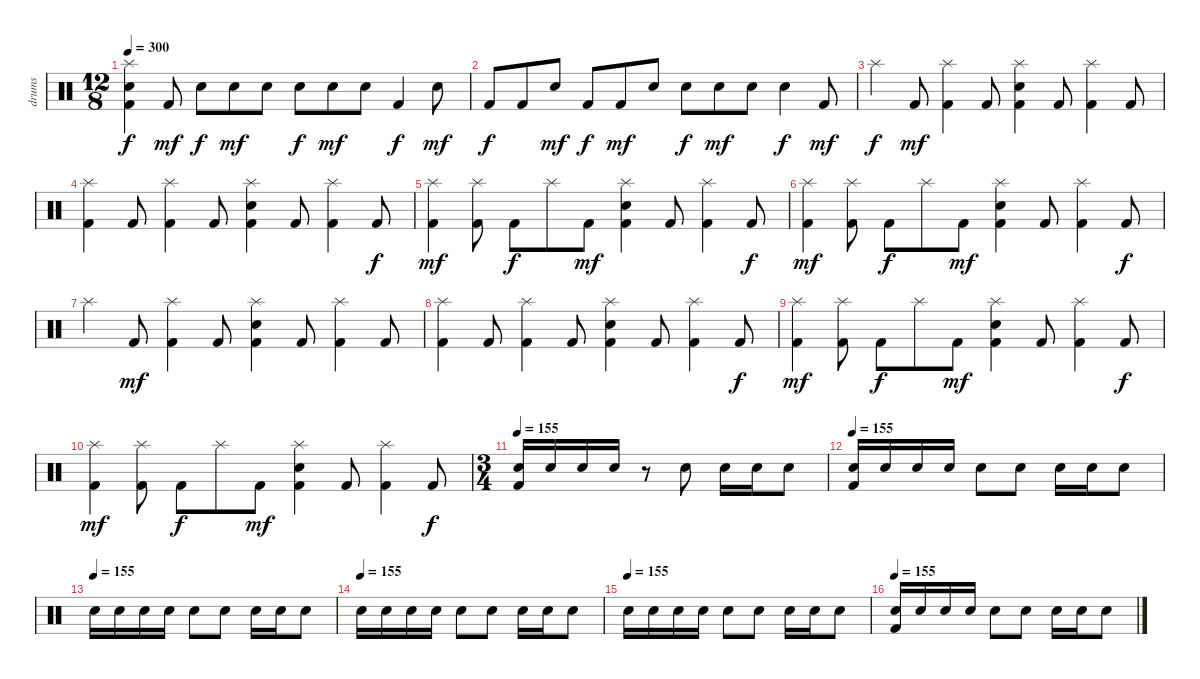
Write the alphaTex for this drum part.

\track ("drums" "drums") {instrument percussion}
\staff {score}
\articulation defaults
\ts (12 8)
\tempo 300
\clef neutral
\ks c
("Splash (hit)" "Snare (hit) 2" "Kick (hit) 2").4{dy f} "Kick (hit) 2".8{dy mf} "Snare (hit) 2".8{dy f} "Snare (hit) 2".8{dy mf} "Snare (hit) 2".8 "Snare (hit) 2".8{dy f} "Snare (hit) 2".8{dy mf} "Snare (hit) 2".8 "Kick (hit) 2".4{dy f} "Snare (hit) 2".8{dy mf} |
"Kick (hit) 2".8{dy f} "Kick (hit) 2".8 "Snare (hit) 2".8{dy mf} "Kick (hit) 2".8{dy f} "Kick (hit) 2".8{dy mf} "Snare (hit) 2".8 "Snare (hit) 2".8{dy f} "Snare (hit) 2".8{dy mf} "Snare (hit) 2".8 "Snare (hit) 2".4{dy f} "Kick (hit) 2".8{dy mf} |
"Splash (hit)".4{dy f} "Kick (hit) 2".8{dy mf} ("Splash (hit)" "Kick (hit) 2").4 "Kick (hit) 2".8 ("Splash (hit)" "Snare (hit) 2" "Kick (hit) 2").4 "Kick (hit) 2".8 ("Splash (hit)" "Kick (hit) 2").4 "Kick (hit) 2".8 |
("Splash (hit)" "Kick (hit) 2").4 "Kick (hit) 2".8 ("Splash (hit)" "Kick (hit) 2").4 "Kick (hit) 2".8 ("Splash (hit)" "Snare (hit) 2" "Kick (hit) 2").4 "Kick (hit) 2".8 ("Splash (hit)" "Kick (hit) 2").4 "Kick (hit) 2".8{dy f} |
("Splash (hit)" "Kick (hit) 2").4{dy mf} ("Splash (hit)" "Kick (hit) 2").8 "Kick (hit) 2".8{dy f} "Splash (hit)".8 "Kick (hit) 2".8{dy mf} ("Splash (hit)" "Snare (hit) 2" "Kick (hit) 2").4 "Kick (hit) 2".8 ("Splash (hit)" "Kick (hit) 2").4 "Kick (hit) 2".8{dy f} |
("Splash (hit)" "Kick (hit) 2").4{dy mf} ("Splash (hit)" "Kick (hit) 2").8 "Kick (hit) 2".8{dy f} "Splash (hit)".8 "Kick (hit) 2".8{dy mf} ("Splash (hit)" "Snare (hit) 2" "Kick (hit) 2").4 "Kick (hit) 2".8 ("Splash (hit)" "Kick (hit) 2").4 "Kick (hit) 2".8{dy f} |
"Splash (hit)".4 "Kick (hit) 2".8{dy mf} ("Splash (hit)" "Kick (hit) 2").4 "Kick (hit) 2".8 ("Splash (hit)" "Snare (hit) 2" "Kick (hit) 2").4 "Kick (hit) 2".8 ("Splash (hit)" "Kick (hit) 2").4 "Kick (hit) 2".8 |
("Splash (hit)" "Kick (hit) 2").4 "Kick (hit) 2".8 ("Splash (hit)" "Kick (hit) 2").4 "Kick (hit) 2".8 ("Splash (hit)" "Snare (hit) 2" "Kick (hit) 2").4 "Kick (hit) 2".8 ("Splash (hit)" "Kick (hit) 2").4 "Kick (hit) 2".8{dy f} |
("Splash (hit)" "Kick (hit) 2").4{dy mf} ("Splash (hit)" "Kick (hit) 2").8 "Kick (hit) 2".8{dy f} "Splash (hit)".8 "Kick (hit) 2".8{dy mf} ("Splash (hit)" "Snare (hit) 2" "Kick (hit) 2").4 "Kick (hit) 2".8 ("Splash (hit)" "Kick (hit) 2").4 "Kick (hit) 2".8{dy f} |
("Splash (hit)" "Kick (hit) 2").4{dy mf} ("Splash (hit)" "Kick (hit) 2").8 "Kick (hit) 2".8{dy f} "Splash (hit)".8 "Kick (hit) 2".8{dy mf} ("Splash (hit)" "Snare (hit) 2" "Kick (hit) 2").4 "Kick (hit) 2".8 ("Splash (hit)" "Kick (hit) 2").4 "Kick (hit) 2".8{dy f} |
\ts (3 4)
\tempo 155
("Snare (hit) 2" "Kick (hit) 2").16 "Snare (hit) 2".16 "Snare (hit) 2".16 "Snare (hit) 2".16 r.8 "Snare (hit) 2".8 "Snare (hit) 2".16 "Snare (hit) 2".16 "Snare (hit) 2".8 |
\tempo 155
("Snare (hit) 2" "Kick (hit) 2").16 "Snare (hit) 2".16 "Snare (hit) 2".16 "Snare (hit) 2".16 "Snare (hit) 2".8 "Snare (hit) 2".8 "Snare (hit) 2".16 "Snare (hit) 2".16 "Snare (hit) 2".8 |
\tempo (155)
"Snare (hit) 2".16 "Snare (hit) 2".16 "Snare (hit) 2".16 "Snare (hit) 2".16 "Snare (hit) 2".8 "Snare (hit) 2".8 "Snare (hit) 2".16 "Snare (hit) 2".16 "Snare (hit) 2".8 |
\tempo (155)
"Snare (hit) 2".16 "Snare (hit) 2".16 "Snare (hit) 2".16 "Snare (hit) 2".16 "Snare (hit) 2".8 "Snare (hit) 2".8 "Snare (hit) 2".16 "Snare (hit) 2".16 "Snare (hit) 2".8 |
\tempo (155)
"Snare (hit) 2".16 "Snare (hit) 2".16 "Snare (hit) 2".16 "Snare (hit) 2".16 "Snare (hit) 2".8 "Snare (hit) 2".8 "Snare (hit) 2".16 "Snare (hit) 2".16 "Snare (hit) 2".8 |
\tempo 155
("Snare (hit) 2" "Kick (hit) 2").16 "Snare (hit) 2".16 "Snare (hit) 2".16 "Snare (hit) 2".16 "Snare (hit) 2".8 "Snare (hit) 2".8 "Snare (hit) 2".16 "Snare (hit) 2".16 "Snare (hit) 2".8
